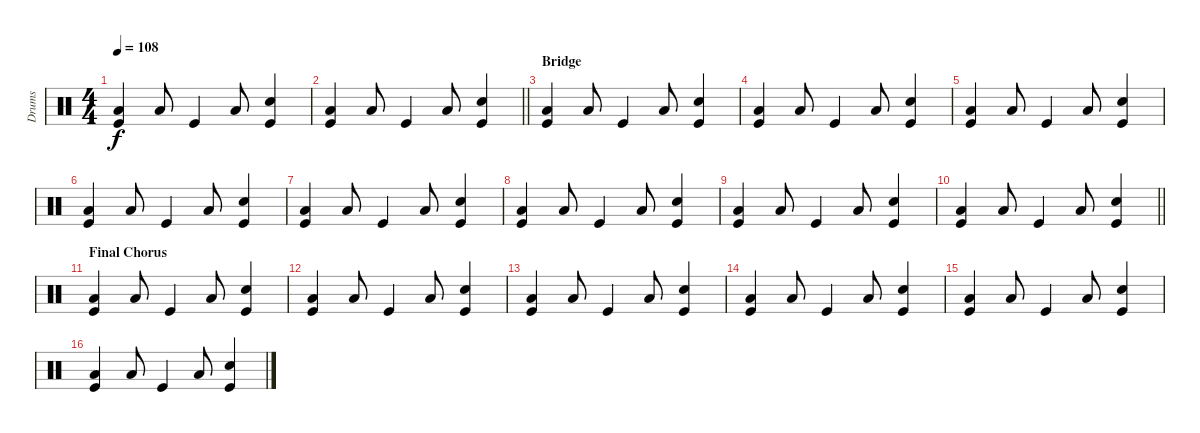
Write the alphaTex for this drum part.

\track ("Drums" "Drums") {instrument percussion}
\staff {score}
\articulation defaults
\ts (4 4)
\tempo 108
\clef neutral
\ks c
("Low Floor Tom (hit)" "Kick (hit)").4{dy f} "Low Floor Tom (hit)".8 "Kick (hit)".4 "Low Floor Tom (hit)".8 ("Snare (hit) 2" "Kick (hit)").4 |
\barLineRight lightlight
("Low Floor Tom (hit)" "Kick (hit)").4 "Low Floor Tom (hit)".8 "Kick (hit)".4 "Low Floor Tom (hit)".8 ("Snare (hit) 2" "Kick (hit)").4 |
\section ("" "Bridge")
("Low Floor Tom (hit)" "Kick (hit)").4 "Low Floor Tom (hit)".8 "Kick (hit)".4 "Low Floor Tom (hit)".8 ("Snare (hit) 2" "Kick (hit)").4 |
("Low Floor Tom (hit)" "Kick (hit)").4 "Low Floor Tom (hit)".8 "Kick (hit)".4 "Low Floor Tom (hit)".8 ("Snare (hit) 2" "Kick (hit)").4 |
("Low Floor Tom (hit)" "Kick (hit)").4 "Low Floor Tom (hit)".8 "Kick (hit)".4 "Low Floor Tom (hit)".8 ("Snare (hit) 2" "Kick (hit)").4 |
("Low Floor Tom (hit)" "Kick (hit)").4 "Low Floor Tom (hit)".8 "Kick (hit)".4 "Low Floor Tom (hit)".8 ("Snare (hit) 2" "Kick (hit)").4 |
("Low Floor Tom (hit)" "Kick (hit)").4 "Low Floor Tom (hit)".8 "Kick (hit)".4 "Low Floor Tom (hit)".8 ("Snare (hit) 2" "Kick (hit)").4 |
("Low Floor Tom (hit)" "Kick (hit)").4 "Low Floor Tom (hit)".8 "Kick (hit)".4 "Low Floor Tom (hit)".8 ("Snare (hit) 2" "Kick (hit)").4 |
("Low Floor Tom (hit)" "Kick (hit)").4 "Low Floor Tom (hit)".8 "Kick (hit)".4 "Low Floor Tom (hit)".8 ("Snare (hit) 2" "Kick (hit)").4 |
\barLineRight lightlight
("Low Floor Tom (hit)" "Kick (hit)").4 "Low Floor Tom (hit)".8 "Kick (hit)".4 "Low Floor Tom (hit)".8 ("Snare (hit) 2" "Kick (hit)").4 |
\section ("" "Final Chorus")
("Low Floor Tom (hit)" "Kick (hit)").4 "Low Floor Tom (hit)".8 "Kick (hit)".4 "Low Floor Tom (hit)".8 ("Snare (hit) 2" "Kick (hit)").4 |
("Low Floor Tom (hit)" "Kick (hit)").4 "Low Floor Tom (hit)".8 "Kick (hit)".4 "Low Floor Tom (hit)".8 ("Snare (hit) 2" "Kick (hit)").4 |
("Low Floor Tom (hit)" "Kick (hit)").4 "Low Floor Tom (hit)".8 "Kick (hit)".4 "Low Floor Tom (hit)".8 ("Snare (hit) 2" "Kick (hit)").4 |
("Low Floor Tom (hit)" "Kick (hit)").4 "Low Floor Tom (hit)".8 "Kick (hit)".4 "Low Floor Tom (hit)".8 ("Snare (hit) 2" "Kick (hit)").4 |
("Low Floor Tom (hit)" "Kick (hit)").4 "Low Floor Tom (hit)".8 "Kick (hit)".4 "Low Floor Tom (hit)".8 ("Snare (hit) 2" "Kick (hit)").4 |
("Low Floor Tom (hit)" "Kick (hit)").4 "Low Floor Tom (hit)".8 "Kick (hit)".4 "Low Floor Tom (hit)".8 ("Snare (hit) 2" "Kick (hit)").4
